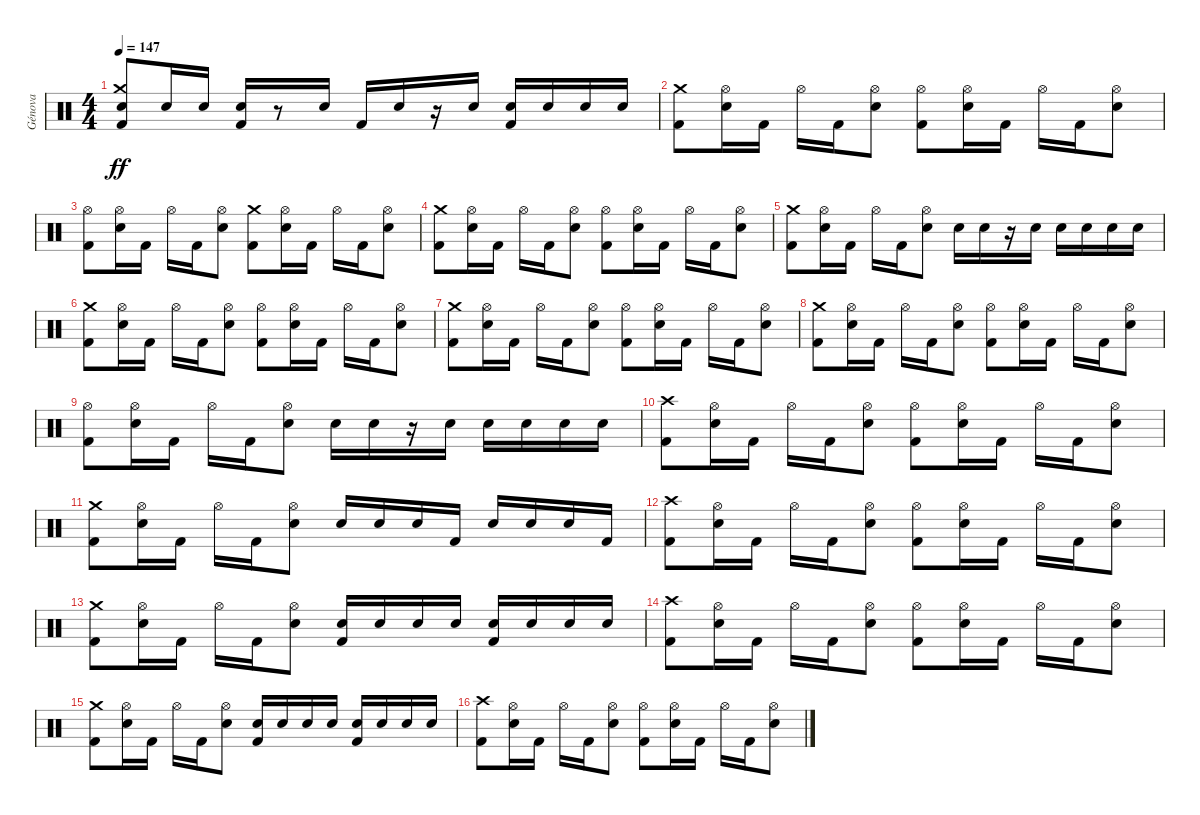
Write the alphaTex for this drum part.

\track ("Génova" "Génova") {instrument percussion}
\staff {score}
\articulation defaults
\ts (4 4)
\tempo 147
\clef neutral
\ks c
("Kick (hit) 2" "Crash medium (hit)" "Electric Snare (hit)").8{dy ff} "Electric Snare (hit)".16 "Electric Snare (hit)".16 ("Electric Snare (hit)" "Kick (hit) 2").16 r.8 "Electric Snare (hit)".16 "Kick (hit) 2".16 "Electric Snare (hit)".16 r.16 "Electric Snare (hit)".16 ("Electric Snare (hit)" "Kick (hit) 2").16 "Electric Snare (hit)".16 "Electric Snare (hit)".16 "Electric Snare (hit)".16 |
("Kick (hit) 2" "Crash medium (hit)").8 ("Electric Snare (hit)" "Hi-Hat (open)").16 "Kick (hit) 2".16 "Hi-Hat (open)".16 "Kick (hit) 2".16 ("Electric Snare (hit)" "Hi-Hat (open)").8 ("Kick (hit) 2" "Hi-Hat (open)").8 ("Electric Snare (hit)" "Hi-Hat (open)").16 "Kick (hit) 2".16 "Hi-Hat (open)".16 "Kick (hit) 2".16 ("Electric Snare (hit)" "Hi-Hat (open)").8 |
("Kick (hit) 2" "Hi-Hat (open)").8 ("Electric Snare (hit)" "Hi-Hat (open)").16 "Kick (hit) 2".16 "Hi-Hat (open)".16 "Kick (hit) 2".16 ("Electric Snare (hit)" "Hi-Hat (open)").8 ("Kick (hit) 2" "Crash medium (hit)").8 ("Electric Snare (hit)" "Hi-Hat (open)").16 "Kick (hit) 2".16 "Hi-Hat (open)".16 "Kick (hit) 2".16 ("Electric Snare (hit)" "Hi-Hat (open)").8 |
("Kick (hit) 2" "Crash medium (hit)").8 ("Electric Snare (hit)" "Hi-Hat (open)").16 "Kick (hit) 2".16 "Hi-Hat (open)".16 "Kick (hit) 2".16 ("Electric Snare (hit)" "Hi-Hat (open)").8 ("Kick (hit) 2" "Hi-Hat (open)").8 ("Electric Snare (hit)" "Hi-Hat (open)").16 "Kick (hit) 2".16 "Hi-Hat (open)".16 "Kick (hit) 2".16 ("Electric Snare (hit)" "Hi-Hat (open)").8 |
("Kick (hit) 2" "Crash medium (hit)").8 ("Electric Snare (hit)" "Hi-Hat (open)").16 "Kick (hit) 2".16 "Hi-Hat (open)".16 "Kick (hit) 2".16 ("Electric Snare (hit)" "Hi-Hat (open)").8 "Electric Snare (hit)".16 "Electric Snare (hit)".16 r.16 "Electric Snare (hit)".16 "Electric Snare (hit)".16 "Electric Snare (hit)".16 "Electric Snare (hit)".16 "Electric Snare (hit)".16 |
("Kick (hit) 2" "Crash medium (hit)").8 ("Electric Snare (hit)" "Hi-Hat (open)").16 "Kick (hit) 2".16 "Hi-Hat (open)".16 "Kick (hit) 2".16 ("Electric Snare (hit)" "Hi-Hat (open)").8 ("Kick (hit) 2" "Hi-Hat (open)").8 ("Electric Snare (hit)" "Hi-Hat (open)").16 "Kick (hit) 2".16 "Hi-Hat (open)".16 "Kick (hit) 2".16 ("Electric Snare (hit)" "Hi-Hat (open)").8 |
("Kick (hit) 2" "Crash medium (hit)").8 ("Electric Snare (hit)" "Hi-Hat (open)").16 "Kick (hit) 2".16 "Hi-Hat (open)".16 "Kick (hit) 2".16 ("Electric Snare (hit)" "Hi-Hat (open)").8 ("Kick (hit) 2" "Hi-Hat (open)").8 ("Electric Snare (hit)" "Hi-Hat (open)").16 "Kick (hit) 2".16 "Hi-Hat (open)".16 "Kick (hit) 2".16 ("Electric Snare (hit)" "Hi-Hat (open)").8 |
("Kick (hit) 2" "Crash medium (hit)").8 ("Electric Snare (hit)" "Hi-Hat (open)").16 "Kick (hit) 2".16 "Hi-Hat (open)".16 "Kick (hit) 2".16 ("Electric Snare (hit)" "Hi-Hat (open)").8 ("Kick (hit) 2" "Hi-Hat (open)").8 ("Electric Snare (hit)" "Hi-Hat (open)").16 "Kick (hit) 2".16 "Hi-Hat (open)".16 "Kick (hit) 2".16 ("Electric Snare (hit)" "Hi-Hat (open)").8 |
("Kick (hit) 2" "Hi-Hat (open)").8 ("Electric Snare (hit)" "Hi-Hat (open)").16 "Kick (hit) 2".16 "Hi-Hat (open)".16 "Kick (hit) 2".16 ("Electric Snare (hit)" "Hi-Hat (open)").8 "Electric Snare (hit)".16 "Electric Snare (hit)".16 r.16 "Electric Snare (hit)".16 "Electric Snare (hit)".16 "Electric Snare (hit)".16 "Electric Snare (hit)".16 "Electric Snare (hit)".16 |
("Crash high (hit)" "Kick (hit) 2").8 ("Electric Snare (hit)" "Hi-Hat (open)").16 "Kick (hit) 2".16 "Hi-Hat (open)".16 "Kick (hit) 2".16 ("Electric Snare (hit)" "Hi-Hat (open)").8 ("Kick (hit) 2" "Hi-Hat (open)").8 ("Electric Snare (hit)" "Hi-Hat (open)").16 "Kick (hit) 2".16 "Hi-Hat (open)".16 "Kick (hit) 2".16 ("Electric Snare (hit)" "Hi-Hat (open)").8 |
("Crash medium (hit)" "Kick (hit) 2").8 ("Electric Snare (hit)" "Hi-Hat (open)").16 "Kick (hit) 2".16 "Hi-Hat (open)".16 "Kick (hit) 2".16 ("Electric Snare (hit)" "Hi-Hat (open)").8 "Electric Snare (hit)".16 "Electric Snare (hit)".16 "Electric Snare (hit)".16 "Kick (hit) 2".16 "Electric Snare (hit)".16 "Electric Snare (hit)".16 "Electric Snare (hit)".16 "Kick (hit) 2".16 |
("Crash high (hit)" "Kick (hit) 2").8 ("Electric Snare (hit)" "Hi-Hat (open)").16 "Kick (hit) 2".16 "Hi-Hat (open)".16 "Kick (hit) 2".16 ("Electric Snare (hit)" "Hi-Hat (open)").8 ("Kick (hit) 2" "Hi-Hat (open)").8 ("Electric Snare (hit)" "Hi-Hat (open)").16 "Kick (hit) 2".16 "Hi-Hat (open)".16 "Kick (hit) 2".16 ("Electric Snare (hit)" "Hi-Hat (open)").8 |
("Crash medium (hit)" "Kick (hit) 2").8 ("Electric Snare (hit)" "Hi-Hat (open)").16 "Kick (hit) 2".16 "Hi-Hat (open)".16 "Kick (hit) 2".16 ("Electric Snare (hit)" "Hi-Hat (open)").8 ("Electric Snare (hit)" "Kick (hit) 2").16 "Electric Snare (hit)".16 "Electric Snare (hit)".16 "Electric Snare (hit)".16 ("Electric Snare (hit)" "Kick (hit) 2").16 "Electric Snare (hit)".16 "Electric Snare (hit)".16 "Electric Snare (hit)".16 |
("Crash high (hit)" "Kick (hit) 2").8 ("Electric Snare (hit)" "Hi-Hat (open)").16 "Kick (hit) 2".16 "Hi-Hat (open)".16 "Kick (hit) 2".16 ("Electric Snare (hit)" "Hi-Hat (open)").8 ("Kick (hit) 2" "Hi-Hat (open)").8 ("Electric Snare (hit)" "Hi-Hat (open)").16 "Kick (hit) 2".16 "Hi-Hat (open)".16 "Kick (hit) 2".16 ("Electric Snare (hit)" "Hi-Hat (open)").8 |
("Crash medium (hit)" "Kick (hit) 2").8 ("Electric Snare (hit)" "Hi-Hat (open)").16 "Kick (hit) 2".16 "Hi-Hat (open)".16 "Kick (hit) 2".16 ("Electric Snare (hit)" "Hi-Hat (open)").8 ("Electric Snare (hit)" "Kick (hit) 2").16 "Electric Snare (hit)".16 "Electric Snare (hit)".16 "Electric Snare (hit)".16 ("Electric Snare (hit)" "Kick (hit) 2").16 "Electric Snare (hit)".16 "Electric Snare (hit)".16 "Electric Snare (hit)".16 |
("Crash high (hit)" "Kick (hit) 2").8 ("Electric Snare (hit)" "Hi-Hat (open)").16 "Kick (hit) 2".16 "Hi-Hat (open)".16 "Kick (hit) 2".16 ("Electric Snare (hit)" "Hi-Hat (open)").8 ("Kick (hit) 2" "Hi-Hat (open)").8 ("Electric Snare (hit)" "Hi-Hat (open)").16 "Kick (hit) 2".16 "Hi-Hat (open)".16 "Kick (hit) 2".16 ("Electric Snare (hit)" "Hi-Hat (open)").8
